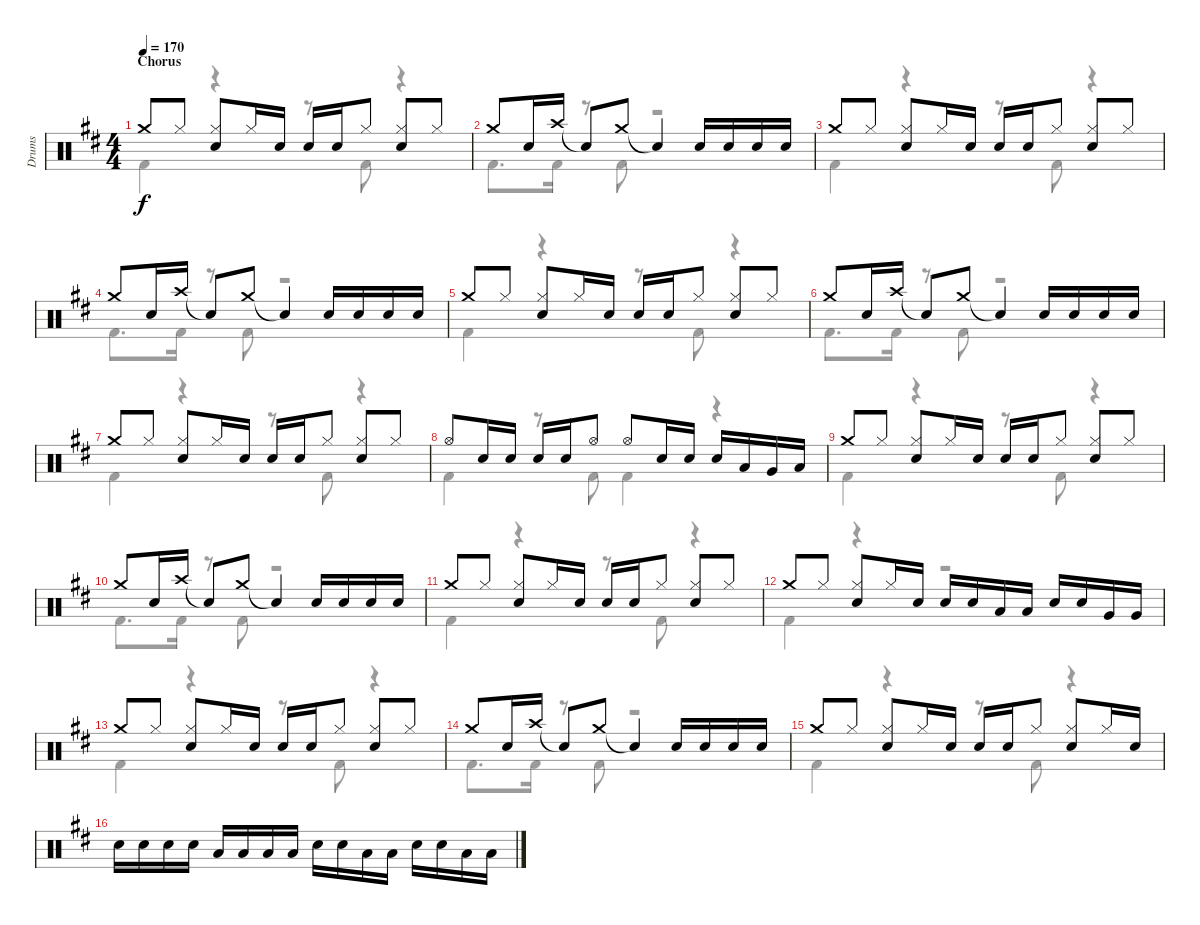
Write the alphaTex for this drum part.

\track ("Drums" "Drums") {instrument percussion}
\staff {score}
\articulation defaults
\voice
\ts (4 4)
\section ("" "Chorus")
\tempo 170
\clef neutral
\ks d "Crash medium (hit)".8{dy f} "Hi-Hat (closed)".8
("Hi-Hat (closed)" "Snare (hit) 2").8 "Hi-Hat (closed)".16 "Snare (hit) 2".16 "Snare (hit) 2".16 "Snare (hit) 2".16 "Hi-Hat (closed)".8 ("Hi-Hat (closed)" "Snare (hit) 2").8 "Hi-Hat (closed)".8 |
"Crash medium (hit)".8 "Snare (hit) 2".16 "Crash high (hit)".16 "Snare (hit)"{t}.8 "Crash medium (hit)".8 "Snare (hit)"{t}.4 "Snare (hit) 2".16 "Snare (hit) 2".16 "Snare (hit) 2".16 "Snare (hit) 2".16 |
"Crash medium (hit)".8 "Hi-Hat (closed)".8 ("Hi-Hat (closed)" "Snare (hit) 2").8 "Hi-Hat (closed)".16 "Snare (hit) 2".16 "Snare (hit) 2".16 "Snare (hit) 2".16 "Hi-Hat (closed)".8 ("Hi-Hat (closed)" "Snare (hit) 2").8 "Hi-Hat (closed)".8 |
"Crash medium (hit)".8 "Snare (hit) 2".16 "Crash high (hit)".16 "Snare (hit)"{t}.8 "Crash medium (hit)".8 "Snare (hit)"{t}.4 "Snare (hit) 2".16 "Snare (hit) 2".16 "Snare (hit) 2".16 "Snare (hit) 2".16 |
"Crash medium (hit)".8 "Hi-Hat (closed)".8 ("Hi-Hat (closed)" "Snare (hit) 2").8 "Hi-Hat (closed)".16 "Snare (hit) 2".16 "Snare (hit) 2".16 "Snare (hit) 2".16 "Hi-Hat (closed)".8 ("Hi-Hat (closed)" "Snare (hit) 2").8 "Hi-Hat (closed)".8 |
"Crash medium (hit)".8 "Snare (hit) 2".16 "Crash high (hit)".16 "Snare (hit)"{t}.8 "Crash medium (hit)".8 "Snare (hit)"{t}.4 "Snare (hit) 2".16 "Snare (hit) 2".16 "Snare (hit) 2".16 "Snare (hit) 2".16 |
"Crash medium (hit)".8 "Hi-Hat (closed)".8 ("Hi-Hat (closed)" "Snare (hit) 2").8 "Hi-Hat (closed)".16 "Snare (hit) 2".16 "Snare (hit) 2".16 "Snare (hit) 2".16 "Hi-Hat (closed)".8 ("Hi-Hat (closed)" "Snare (hit) 2").8 "Hi-Hat (closed)".8 |
"Hi-Hat (open)".8 "Snare (hit) 2".16 "Snare (hit) 2".16 "Snare (hit) 2".16 "Snare (hit) 2".16 "Hi-Hat (open)".8 "Hi-Hat (open)".8 "Snare (hit) 2".16 "Snare (hit) 2".16 "Snare (hit) 2".16 "Low Tom (hit)".16 "Very Low Tom (hit)".16 "Low Floor Tom (hit)".16 |
"Crash medium (hit)".8 "Hi-Hat (closed)".8 ("Hi-Hat (closed)" "Snare (hit) 2").8 "Hi-Hat (closed)".16 "Snare (hit) 2".16 "Snare (hit) 2".16 "Snare (hit) 2".16 "Hi-Hat (closed)".8 ("Hi-Hat (closed)" "Snare (hit) 2").8 "Hi-Hat (closed)".8 |
"Crash medium (hit)".8 "Snare (hit) 2".16 "Crash high (hit)".16 "Snare (hit)"{t}.8 "Crash medium (hit)".8 "Snare (hit)"{t}.4 "Snare (hit) 2".16 "Snare (hit) 2".16 "Snare (hit) 2".16 "Snare (hit) 2".16 |
"Crash medium (hit)".8 "Hi-Hat (closed)".8 ("Hi-Hat (closed)" "Snare (hit) 2").8 "Hi-Hat (closed)".16 "Snare (hit) 2".16 "Snare (hit) 2".16 "Snare (hit) 2".16 "Hi-Hat (closed)".8 ("Hi-Hat (closed)" "Snare (hit) 2").8 "Hi-Hat (closed)".8 |
"Crash medium (hit)".8 "Hi-Hat (closed)".8 ("Hi-Hat (closed)" "Snare (hit) 2").8 "Hi-Hat (closed)".16 "Snare (hit) 2".16 "Snare (hit) 2".16 "Snare (hit) 2".16 "Low Tom (hit)".16 "Low Tom (hit)".16 "Snare (hit) 2".16 "Snare (hit) 2".16 "Very Low Tom (hit)".16 "Very Low Tom (hit)".16 |
"Crash medium (hit)".8 "Hi-Hat (closed)".8 ("Hi-Hat (closed)" "Snare (hit) 2").8 "Hi-Hat (closed)".16 "Snare (hit) 2".16 "Snare (hit) 2".16 "Snare (hit) 2".16 "Hi-Hat (closed)".8 ("Hi-Hat (closed)" "Snare (hit) 2").8 "Hi-Hat (closed)".8 |
"Crash medium (hit)".8 "Snare (hit) 2".16 "Crash high (hit)".16 "Snare (hit)"{t}.8 "Crash medium (hit)".8 "Snare (hit)"{t}.4 "Snare (hit) 2".16 "Snare (hit) 2".16 "Snare (hit) 2".16 "Snare (hit) 2".16 |
"Crash medium (hit)".8 "Hi-Hat (closed)".8 ("Hi-Hat (closed)" "Snare (hit) 2").8 "Hi-Hat (closed)".16 "Snare (hit) 2".16 "Snare (hit) 2".16 "Snare (hit) 2".16 "Hi-Hat (closed)".8 ("Hi-Hat (closed)" "Snare (hit) 2").8 "Hi-Hat (closed)".16 "Snare (hit) 2".16 |
"Snare (hit) 2".16 "Snare (hit) 2".16 "Snare (hit) 2".16 "Snare (hit) 2".16 "Low Tom (hit)".16 "Low Tom (hit)".16 "Low Tom (hit)".16 "Low Tom (hit)".16 "Snare (hit) 2".16 "Snare (hit) 2".16 "Low Tom (hit)".16 "Low Tom (hit)".16 "Snare (hit) 2".16 "Snare (hit) 2".16 "Low Floor Tom (hit)".16 "Low Floor Tom (hit)".16
\voice
\clef neutral
\ottava regular
\simile none
\ks d "Kick (hit) 2".4{dy f}
r.4 r.8 "Kick (hit) 2".8 r.4 |
"Kick (hit) 2".8{d} "Kick (hit) 2".16 r.8 "Kick (hit) 2".8 r.2 |
"Kick (hit) 2".4 r.4 r.8 "Kick (hit) 2".8 r.4 |
"Kick (hit) 2".8{d} "Kick (hit) 2".16 r.8 "Kick (hit) 2".8 r.2 |
"Kick (hit) 2".4 r.4 r.8 "Kick (hit) 2".8 r.4 |
"Kick (hit) 2".8{d} "Kick (hit) 2".16 r.8 "Kick (hit) 2".8 r.2 |
"Kick (hit) 2".4 r.4 r.8 "Kick (hit) 2".8 r.4 |
"Kick (hit) 2".4 r.8 "Kick (hit) 2".8 "Kick (hit) 2".4 r.4 |
"Kick (hit) 2".4 r.4 r.8 "Kick (hit) 2".8 r.4 |
"Kick (hit) 2".8{d} "Kick (hit) 2".16 r.8 "Kick (hit) 2".8 r.2 |
"Kick (hit) 2".4 r.4 r.8 "Kick (hit) 2".8 r.4 |
"Kick (hit) 2".4 r.4 r.2 |
"Kick (hit) 2".4 r.4 r.8 "Kick (hit) 2".8 r.4 |
"Kick (hit) 2".8{d} "Kick (hit) 2".16 r.8 "Kick (hit) 2".8 r.2 |
"Kick (hit) 2".4 r.4 r.8 "Kick (hit) 2".8 r.4 |
